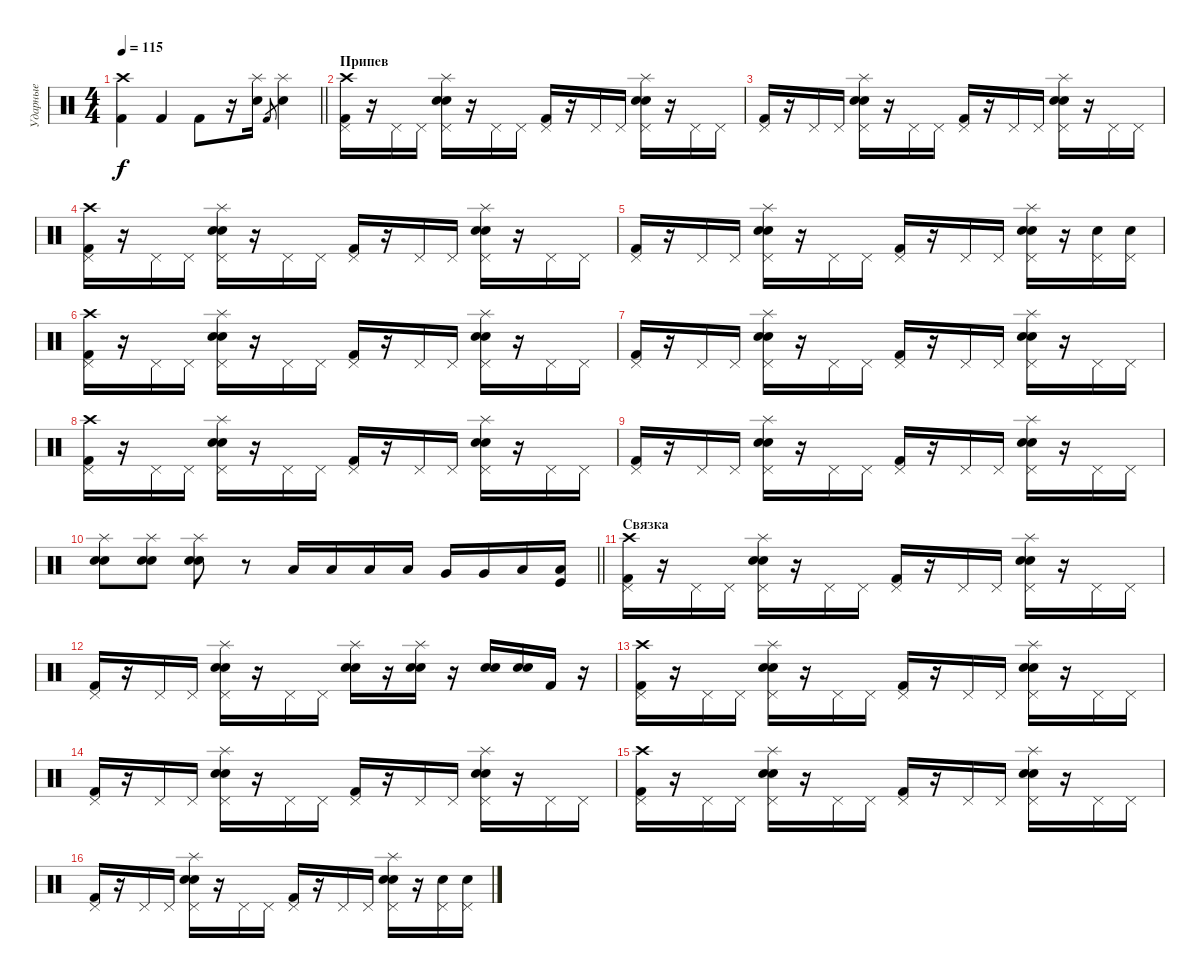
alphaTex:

\track ("Ударные" "Ударные") {instrument percussion}
\staff {score}
\articulation defaults
\ts (4 4)
\tempo 115
\clef neutral
\barLineRight lightlight
\ks c
("Crash high (hit)" "Kick (hit) 2").4{dy f} "Kick (hit) 2".4 "Kick (hit) 2".8 r.16 ("Splash (hit)" "Electric Snare (hit)").16 "Kick (hit) 2".8{gr} ("Splash (hit)" "Electric Snare (hit)").4 |
\section ("" "Припев")
("Crash high (hit)" "Pedal Hi-Hat (hit)" "Kick (hit) 2").16 r.16 "Pedal Hi-Hat (hit)".16 "Pedal Hi-Hat (hit)".16 ("Splash (hit)" "Pedal Hi-Hat (hit)" "Electric Snare (hit)" "Snare (hit) 2").16 r.16 "Pedal Hi-Hat (hit)".16 "Pedal Hi-Hat (hit)".16 ("Pedal Hi-Hat (hit)" "Kick (hit) 2").16 r.16 "Pedal Hi-Hat (hit)".16 "Pedal Hi-Hat (hit)".16 ("Splash (hit)" "Pedal Hi-Hat (hit)" "Electric Snare (hit)" "Snare (hit) 2").16 r.16 "Pedal Hi-Hat (hit)".16 "Pedal Hi-Hat (hit)".16 |
("Pedal Hi-Hat (hit)" "Kick (hit) 2").16 r.16 "Pedal Hi-Hat (hit)".16 "Pedal Hi-Hat (hit)".16 ("Splash (hit)" "Pedal Hi-Hat (hit)" "Electric Snare (hit)" "Snare (hit) 2").16 r.16 "Pedal Hi-Hat (hit)".16 "Pedal Hi-Hat (hit)".16 ("Pedal Hi-Hat (hit)" "Kick (hit) 2").16 r.16 "Pedal Hi-Hat (hit)".16 "Pedal Hi-Hat (hit)".16 ("Splash (hit)" "Pedal Hi-Hat (hit)" "Electric Snare (hit)" "Snare (hit) 2").16 r.16 "Pedal Hi-Hat (hit)".16 "Pedal Hi-Hat (hit)".16 |
("Crash high (hit)" "Pedal Hi-Hat (hit)" "Kick (hit) 2").16 r.16 "Pedal Hi-Hat (hit)".16 "Pedal Hi-Hat (hit)".16 ("Splash (hit)" "Pedal Hi-Hat (hit)" "Electric Snare (hit)" "Snare (hit) 2").16 r.16 "Pedal Hi-Hat (hit)".16 "Pedal Hi-Hat (hit)".16 ("Pedal Hi-Hat (hit)" "Kick (hit) 2").16 r.16 "Pedal Hi-Hat (hit)".16 "Pedal Hi-Hat (hit)".16 ("Splash (hit)" "Pedal Hi-Hat (hit)" "Electric Snare (hit)" "Snare (hit) 2").16 r.16 "Pedal Hi-Hat (hit)".16 "Pedal Hi-Hat (hit)".16 |
("Pedal Hi-Hat (hit)" "Kick (hit) 2").16 r.16 "Pedal Hi-Hat (hit)".16 "Pedal Hi-Hat (hit)".16 ("Splash (hit)" "Pedal Hi-Hat (hit)" "Electric Snare (hit)" "Snare (hit) 2").16 r.16 "Pedal Hi-Hat (hit)".16 "Pedal Hi-Hat (hit)".16 ("Pedal Hi-Hat (hit)" "Kick (hit) 2").16 r.16 "Pedal Hi-Hat (hit)".16 "Pedal Hi-Hat (hit)".16 ("Splash (hit)" "Pedal Hi-Hat (hit)" "Electric Snare (hit)" "Snare (hit) 2").16 r.16 ("Pedal Hi-Hat (hit)" "Electric Snare (hit)").16 ("Pedal Hi-Hat (hit)" "Electric Snare (hit)").16 |
("Crash high (hit)" "Pedal Hi-Hat (hit)" "Kick (hit) 2").16 r.16 "Pedal Hi-Hat (hit)".16 "Pedal Hi-Hat (hit)".16 ("Splash (hit)" "Pedal Hi-Hat (hit)" "Electric Snare (hit)" "Snare (hit) 2").16 r.16 "Pedal Hi-Hat (hit)".16 "Pedal Hi-Hat (hit)".16 ("Pedal Hi-Hat (hit)" "Kick (hit) 2").16 r.16 "Pedal Hi-Hat (hit)".16 "Pedal Hi-Hat (hit)".16 ("Splash (hit)" "Pedal Hi-Hat (hit)" "Electric Snare (hit)" "Snare (hit) 2").16 r.16 "Pedal Hi-Hat (hit)".16 "Pedal Hi-Hat (hit)".16 |
("Pedal Hi-Hat (hit)" "Kick (hit) 2").16 r.16 "Pedal Hi-Hat (hit)".16 "Pedal Hi-Hat (hit)".16 ("Splash (hit)" "Pedal Hi-Hat (hit)" "Electric Snare (hit)" "Snare (hit) 2").16 r.16 "Pedal Hi-Hat (hit)".16 "Pedal Hi-Hat (hit)".16 ("Pedal Hi-Hat (hit)" "Kick (hit) 2").16 r.16 "Pedal Hi-Hat (hit)".16 "Pedal Hi-Hat (hit)".16 ("Splash (hit)" "Pedal Hi-Hat (hit)" "Electric Snare (hit)" "Snare (hit) 2").16 r.16 "Pedal Hi-Hat (hit)".16 "Pedal Hi-Hat (hit)".16 |
("Crash high (hit)" "Pedal Hi-Hat (hit)" "Kick (hit) 2").16 r.16 "Pedal Hi-Hat (hit)".16 "Pedal Hi-Hat (hit)".16 ("Splash (hit)" "Pedal Hi-Hat (hit)" "Electric Snare (hit)" "Snare (hit) 2").16 r.16 "Pedal Hi-Hat (hit)".16 "Pedal Hi-Hat (hit)".16 ("Pedal Hi-Hat (hit)" "Kick (hit) 2").16 r.16 "Pedal Hi-Hat (hit)".16 "Pedal Hi-Hat (hit)".16 ("Splash (hit)" "Pedal Hi-Hat (hit)" "Electric Snare (hit)" "Snare (hit) 2").16 r.16 "Pedal Hi-Hat (hit)".16 "Pedal Hi-Hat (hit)".16 |
("Pedal Hi-Hat (hit)" "Kick (hit) 2").16 r.16 "Pedal Hi-Hat (hit)".16 "Pedal Hi-Hat (hit)".16 ("Splash (hit)" "Pedal Hi-Hat (hit)" "Electric Snare (hit)" "Snare (hit) 2").16 r.16 "Pedal Hi-Hat (hit)".16 "Pedal Hi-Hat (hit)".16 ("Pedal Hi-Hat (hit)" "Kick (hit) 2").16 r.16 "Pedal Hi-Hat (hit)".16 "Pedal Hi-Hat (hit)".16 ("Splash (hit)" "Pedal Hi-Hat (hit)" "Electric Snare (hit)" "Snare (hit) 2").16 r.16 "Pedal Hi-Hat (hit)".16 "Pedal Hi-Hat (hit)".16 |
\barLineRight lightlight
("Splash (hit)" "Electric Snare (hit)" "Snare (hit) 2").8 ("Splash (hit)" "Electric Snare (hit)" "Snare (hit) 2").8 ("Splash (hit)" "Electric Snare (hit)" "Snare (hit) 2").8 r.8 "Low Tom (hit)".16 "Low Tom (hit)".16 "Low Tom (hit)".16 "Low Tom (hit)".16 "Very Low Tom (hit)".16 "Very Low Tom (hit)".16 "Low Floor Tom (hit)".16 ("Low Floor Tom (hit)" "Kick (hit)").16 |
\section ("" "Связка")
("Crash high (hit)" "Pedal Hi-Hat (hit)" "Kick (hit) 2").16 r.16 "Pedal Hi-Hat (hit)".16 "Pedal Hi-Hat (hit)".16 ("Splash (hit)" "Pedal Hi-Hat (hit)" "Electric Snare (hit)" "Snare (hit) 2").16 r.16 "Pedal Hi-Hat (hit)".16 "Pedal Hi-Hat (hit)".16 ("Pedal Hi-Hat (hit)" "Kick (hit) 2").16 r.16 "Pedal Hi-Hat (hit)".16 "Pedal Hi-Hat (hit)".16 ("Splash (hit)" "Pedal Hi-Hat (hit)" "Electric Snare (hit)" "Snare (hit) 2").16 r.16 "Pedal Hi-Hat (hit)".16 "Pedal Hi-Hat (hit)".16 |
("Pedal Hi-Hat (hit)" "Kick (hit) 2").16 r.16 "Pedal Hi-Hat (hit)".16 "Pedal Hi-Hat (hit)".16 ("Splash (hit)" "Pedal Hi-Hat (hit)" "Electric Snare (hit)" "Snare (hit) 2").16 r.16 "Pedal Hi-Hat (hit)".16 "Pedal Hi-Hat (hit)".16 ("Splash (hit)" "Electric Snare (hit)" "Snare (hit) 2").16 r.16 ("Splash (hit)" "Electric Snare (hit)" "Snare (hit) 2").16 r.16 ("Electric Snare (hit)" "Snare (hit) 2").16 ("Electric Snare (hit)" "Snare (hit) 2").16 "Kick (hit) 2".16 r.16 |
("Crash high (hit)" "Pedal Hi-Hat (hit)" "Kick (hit) 2").16 r.16 "Pedal Hi-Hat (hit)".16 "Pedal Hi-Hat (hit)".16 ("Splash (hit)" "Pedal Hi-Hat (hit)" "Electric Snare (hit)" "Snare (hit) 2").16 r.16 "Pedal Hi-Hat (hit)".16 "Pedal Hi-Hat (hit)".16 ("Pedal Hi-Hat (hit)" "Kick (hit) 2").16 r.16 "Pedal Hi-Hat (hit)".16 "Pedal Hi-Hat (hit)".16 ("Splash (hit)" "Pedal Hi-Hat (hit)" "Electric Snare (hit)" "Snare (hit) 2").16 r.16 "Pedal Hi-Hat (hit)".16 "Pedal Hi-Hat (hit)".16 |
("Pedal Hi-Hat (hit)" "Kick (hit) 2").16 r.16 "Pedal Hi-Hat (hit)".16 "Pedal Hi-Hat (hit)".16 ("Splash (hit)" "Pedal Hi-Hat (hit)" "Electric Snare (hit)" "Snare (hit) 2").16 r.16 "Pedal Hi-Hat (hit)".16 "Pedal Hi-Hat (hit)".16 ("Pedal Hi-Hat (hit)" "Kick (hit) 2").16 r.16 "Pedal Hi-Hat (hit)".16 "Pedal Hi-Hat (hit)".16 ("Splash (hit)" "Pedal Hi-Hat (hit)" "Electric Snare (hit)" "Snare (hit) 2").16 r.16 "Pedal Hi-Hat (hit)".16 "Pedal Hi-Hat (hit)".16 |
("Crash high (hit)" "Pedal Hi-Hat (hit)" "Kick (hit) 2").16 r.16 "Pedal Hi-Hat (hit)".16 "Pedal Hi-Hat (hit)".16 ("Splash (hit)" "Pedal Hi-Hat (hit)" "Electric Snare (hit)" "Snare (hit) 2").16 r.16 "Pedal Hi-Hat (hit)".16 "Pedal Hi-Hat (hit)".16 ("Pedal Hi-Hat (hit)" "Kick (hit) 2").16 r.16 "Pedal Hi-Hat (hit)".16 "Pedal Hi-Hat (hit)".16 ("Splash (hit)" "Pedal Hi-Hat (hit)" "Electric Snare (hit)" "Snare (hit) 2").16 r.16 "Pedal Hi-Hat (hit)".16 "Pedal Hi-Hat (hit)".16 |
("Pedal Hi-Hat (hit)" "Kick (hit) 2").16 r.16 "Pedal Hi-Hat (hit)".16 "Pedal Hi-Hat (hit)".16 ("Splash (hit)" "Pedal Hi-Hat (hit)" "Electric Snare (hit)" "Snare (hit) 2").16 r.16 "Pedal Hi-Hat (hit)".16 "Pedal Hi-Hat (hit)".16 ("Pedal Hi-Hat (hit)" "Kick (hit) 2").16 r.16 "Pedal Hi-Hat (hit)".16 "Pedal Hi-Hat (hit)".16 ("Splash (hit)" "Pedal Hi-Hat (hit)" "Electric Snare (hit)" "Snare (hit) 2").16 r.16 ("Pedal Hi-Hat (hit)" "Electric Snare (hit)").16 ("Pedal Hi-Hat (hit)" "Electric Snare (hit)").16
